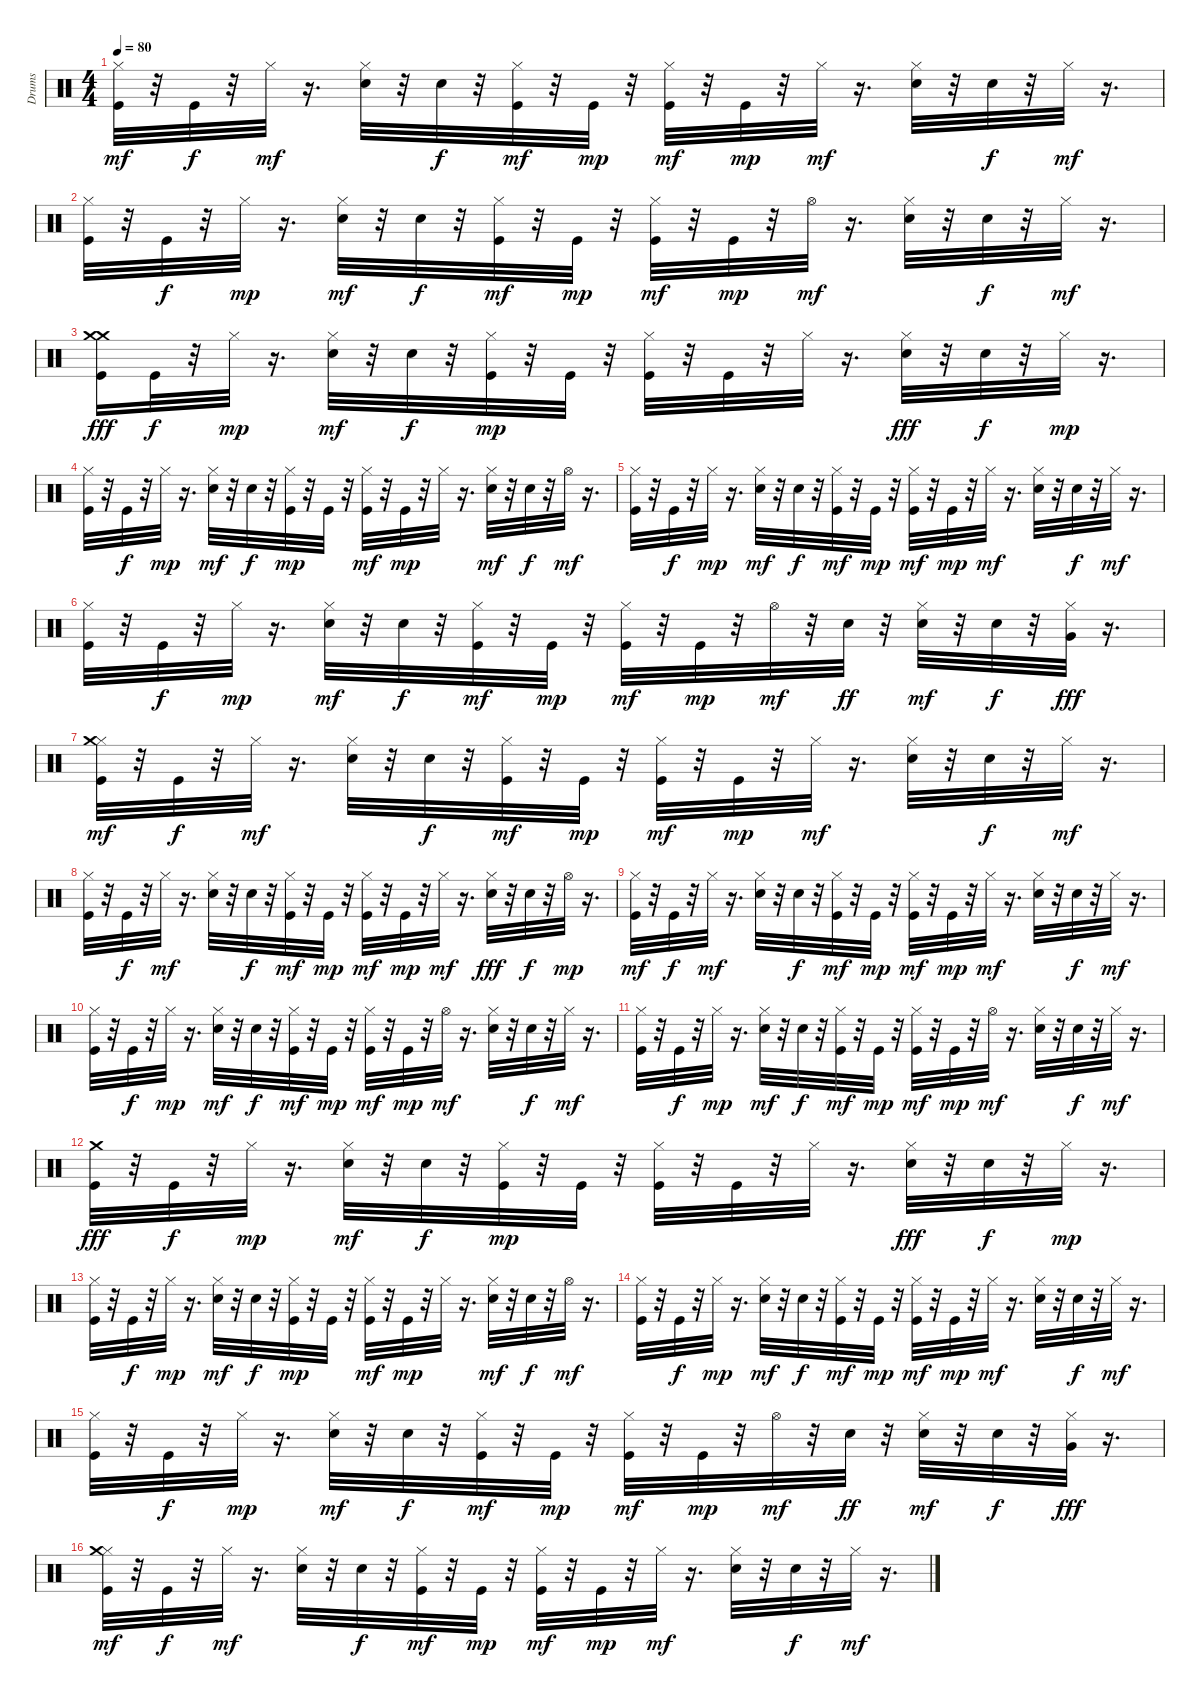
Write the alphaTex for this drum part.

\track ("Drums" "Drums") {instrument percussion}
\staff {score}
\articulation defaults
\ts (4 4)
\tempo 80
\clef neutral
\ks c
("Kick (hit)" "Hi-Hat (closed)").32{dy mf} r.32 "Kick (hit)".32{dy f} r.32 "Hi-Hat (closed)".32{dy mf} r.16{d} ("Snare (hit) 2" "Hi-Hat (closed)").32 r.32 "Snare (hit) 2".32{dy f} r.32 ("Kick (hit)" "Hi-Hat (closed)").32{dy mf} r.32 "Kick (hit)".32{dy mp} r.32 ("Kick (hit)" "Hi-Hat (closed)").32{dy mf} r.32 "Kick (hit)".32{dy mp} r.32 "Hi-Hat (closed)".32{dy mf} r.16{d} ("Snare (hit) 2" "Hi-Hat (closed)").32 r.32 "Snare (hit) 2".32{dy f} r.32 "Hi-Hat (closed)".32{dy mf} r.16{d} |
("Kick (hit)" "Hi-Hat (closed)").32 r.32 "Kick (hit)".32{dy f} r.32 "Hi-Hat (closed)".32{dy mp} r.16{d} ("Snare (hit) 2" "Hi-Hat (closed)").32{dy mf} r.32 "Snare (hit) 2".32{dy f} r.32 ("Kick (hit)" "Hi-Hat (closed)").32{dy mf} r.32 "Kick (hit)".32{dy mp} r.32 ("Kick (hit)" "Hi-Hat (closed)").32{dy mf} r.32 "Kick (hit)".32{dy mp} r.32 "Hi-Hat (open)".32{dy mf} r.16{d} ("Snare (hit) 2" "Hi-Hat (closed)").32 r.32 "Snare (hit) 2".32{dy f} r.32 "Hi-Hat (closed)".32{dy mf} r.16{d} |
("Kick (hit)" "Crash medium (hit)" "Crash medium (hit)").16{dy fff} "Kick (hit)".32{dy f} r.32 "Hi-Hat (closed)".32{dy mp} r.16{d} ("Snare (hit) 2" "Hi-Hat (closed)").32{dy mf} r.32 "Snare (hit) 2".32{dy f} r.32 ("Kick (hit)" "Hi-Hat (closed)").32{dy mp} r.32 "Kick (hit)".32 r.32 ("Kick (hit)" "Hi-Hat (closed)").32 r.32 "Kick (hit)".32 r.32 "Hi-Hat (closed)".32 r.16{d} ("Snare (hit) 2" "Hi-Hat (closed)").32{dy fff} r.32 "Snare (hit) 2".32{dy f} r.32 "Hi-Hat (closed)".32{dy mp} r.16{d} |
("Kick (hit)" "Hi-Hat (closed)").32 r.32 "Kick (hit)".32{dy f} r.32 "Hi-Hat (closed)".32{dy mp} r.16{d} ("Snare (hit) 2" "Hi-Hat (closed)").32{dy mf} r.32 "Snare (hit) 2".32{dy f} r.32 ("Kick (hit)" "Hi-Hat (closed)").32{dy mp} r.32 "Kick (hit)".32 r.32 ("Kick (hit)" "Hi-Hat (closed)").32{dy mf} r.32 "Kick (hit)".32{dy mp} r.32 "Hi-Hat (closed)".32 r.16{d} ("Snare (hit) 2" "Hi-Hat (closed)").32{dy mf} r.32 "Snare (hit) 2".32{dy f} r.32 "Hi-Hat (open)".32{dy mf} r.16{d} |
("Kick (hit)" "Hi-Hat (closed)").32 r.32 "Kick (hit)".32{dy f} r.32 "Hi-Hat (closed)".32{dy mp} r.16{d} ("Snare (hit) 2" "Hi-Hat (closed)").32{dy mf} r.32 "Snare (hit) 2".32{dy f} r.32 ("Kick (hit)" "Hi-Hat (closed)").32{dy mf} r.32 "Kick (hit)".32{dy mp} r.32 ("Kick (hit)" "Hi-Hat (closed)").32{dy mf} r.32 "Kick (hit)".32{dy mp} r.32 "Hi-Hat (closed)".32{dy mf} r.16{d} ("Snare (hit) 2" "Hi-Hat (closed)").32 r.32 "Snare (hit) 2".32{dy f} r.32 "Hi-Hat (closed)".32{dy mf} r.16{d} |
("Kick (hit)" "Hi-Hat (closed)").32 r.32 "Kick (hit)".32{dy f} r.32 "Hi-Hat (closed)".32{dy mp} r.16{d} ("Snare (hit) 2" "Hi-Hat (closed)").32{dy mf} r.32 "Snare (hit) 2".32{dy f} r.32 ("Kick (hit)" "Hi-Hat (closed)").32{dy mf} r.32 "Kick (hit)".32{dy mp} r.32 ("Kick (hit)" "Hi-Hat (closed)").32{dy mf} r.32 "Kick (hit)".32{dy mp} r.32 "Hi-Hat (open)".32{dy mf} r.32 "Snare (hit) 2".32{dy ff} r.32 ("Snare (hit) 2" "Hi-Hat (closed)").32{dy mf} r.32 "Snare (hit) 2".32{dy f} r.32 ("Hi-Hat (closed)" "Very Low Tom (hit)").32{dy fff} r.16{d} |
("Kick (hit)" "Hi-Hat (closed)" "Crash medium (hit)").32{dy mf} r.32 "Kick (hit)".32{dy f} r.32 "Hi-Hat (closed)".32{dy mf} r.16{d} ("Snare (hit) 2" "Hi-Hat (closed)").32 r.32 "Snare (hit) 2".32{dy f} r.32 ("Kick (hit)" "Hi-Hat (closed)").32{dy mf} r.32 "Kick (hit)".32{dy mp} r.32 ("Kick (hit)" "Hi-Hat (closed)").32{dy mf} r.32 "Kick (hit)".32{dy mp} r.32 "Hi-Hat (closed)".32{dy mf} r.16{d} ("Snare (hit) 2" "Hi-Hat (closed)").32 r.32 "Snare (hit) 2".32{dy f} r.32 "Hi-Hat (closed)".32{dy mf} r.16{d} |
("Kick (hit)" "Hi-Hat (closed)").32 r.32 "Kick (hit)".32{dy f} r.32 "Hi-Hat (closed)".32{dy mf} r.16{d} ("Snare (hit) 2" "Hi-Hat (closed)").32 r.32 "Snare (hit) 2".32{dy f} r.32 ("Kick (hit)" "Hi-Hat (closed)").32{dy mf} r.32 "Kick (hit)".32{dy mp} r.32 ("Kick (hit)" "Hi-Hat (closed)").32{dy mf} r.32 "Kick (hit)".32{dy mp} r.32 "Hi-Hat (closed)".32{dy mf} r.16{d} ("Snare (hit) 2" "Hi-Hat (closed)").32{dy fff} r.32 "Snare (hit) 2".32{dy f} r.32 "Hi-Hat (open)".32{dy mp} r.16{d} |
("Kick (hit)" "Hi-Hat (closed)").32{dy mf} r.32 "Kick (hit)".32{dy f} r.32 "Hi-Hat (closed)".32{dy mf} r.16{d} ("Snare (hit) 2" "Hi-Hat (closed)").32 r.32 "Snare (hit) 2".32{dy f} r.32 ("Kick (hit)" "Hi-Hat (closed)").32{dy mf} r.32 "Kick (hit)".32{dy mp} r.32 ("Kick (hit)" "Hi-Hat (closed)").32{dy mf} r.32 "Kick (hit)".32{dy mp} r.32 "Hi-Hat (closed)".32{dy mf} r.16{d} ("Snare (hit) 2" "Hi-Hat (closed)").32 r.32 "Snare (hit) 2".32{dy f} r.32 "Hi-Hat (closed)".32{dy mf} r.16{d} |
("Kick (hit)" "Hi-Hat (closed)").32 r.32 "Kick (hit)".32{dy f} r.32 "Hi-Hat (closed)".32{dy mp} r.16{d} ("Snare (hit) 2" "Hi-Hat (closed)").32{dy mf} r.32 "Snare (hit) 2".32{dy f} r.32 ("Kick (hit)" "Hi-Hat (closed)").32{dy mf} r.32 "Kick (hit)".32{dy mp} r.32 ("Kick (hit)" "Hi-Hat (closed)").32{dy mf} r.32 "Kick (hit)".32{dy mp} r.32 "Hi-Hat (open)".32{dy mf} r.16{d} ("Snare (hit) 2" "Hi-Hat (closed)").32 r.32 "Snare (hit) 2".32{dy f} r.32 "Hi-Hat (closed)".32{dy mf} r.16{d} |
("Kick (hit)" "Hi-Hat (closed)").32 r.32 "Kick (hit)".32{dy f} r.32 "Hi-Hat (closed)".32{dy mp} r.16{d} ("Snare (hit) 2" "Hi-Hat (closed)").32{dy mf} r.32 "Snare (hit) 2".32{dy f} r.32 ("Kick (hit)" "Hi-Hat (closed)").32{dy mf} r.32 "Kick (hit)".32{dy mp} r.32 ("Kick (hit)" "Hi-Hat (closed)").32{dy mf} r.32 "Kick (hit)".32{dy mp} r.32 "Hi-Hat (open)".32{dy mf} r.16{d} ("Snare (hit) 2" "Hi-Hat (closed)").32 r.32 "Snare (hit) 2".32{dy f} r.32 "Hi-Hat (closed)".32{dy mf} r.16{d} |
("Kick (hit)" "Crash medium (hit)").32{dy fff} r.32 "Kick (hit)".32{dy f} r.32 "Hi-Hat (closed)".32{dy mp} r.16{d} ("Snare (hit) 2" "Hi-Hat (closed)").32{dy mf} r.32 "Snare (hit) 2".32{dy f} r.32 ("Kick (hit)" "Hi-Hat (closed)").32{dy mp} r.32 "Kick (hit)".32 r.32 ("Kick (hit)" "Hi-Hat (closed)").32 r.32 "Kick (hit)".32 r.32 "Hi-Hat (closed)".32 r.16{d} ("Snare (hit) 2" "Hi-Hat (closed)").32{dy fff} r.32 "Snare (hit) 2".32{dy f} r.32 "Hi-Hat (closed)".32{dy mp} r.16{d} |
("Kick (hit)" "Hi-Hat (closed)").32 r.32 "Kick (hit)".32{dy f} r.32 "Hi-Hat (closed)".32{dy mp} r.16{d} ("Snare (hit) 2" "Hi-Hat (closed)").32{dy mf} r.32 "Snare (hit) 2".32{dy f} r.32 ("Kick (hit)" "Hi-Hat (closed)").32{dy mp} r.32 "Kick (hit)".32 r.32 ("Kick (hit)" "Hi-Hat (closed)").32{dy mf} r.32 "Kick (hit)".32{dy mp} r.32 "Hi-Hat (closed)".32 r.16{d} ("Snare (hit) 2" "Hi-Hat (closed)").32{dy mf} r.32 "Snare (hit) 2".32{dy f} r.32 "Hi-Hat (open)".32{dy mf} r.16{d} |
("Kick (hit)" "Hi-Hat (closed)").32 r.32 "Kick (hit)".32{dy f} r.32 "Hi-Hat (closed)".32{dy mp} r.16{d} ("Snare (hit) 2" "Hi-Hat (closed)").32{dy mf} r.32 "Snare (hit) 2".32{dy f} r.32 ("Kick (hit)" "Hi-Hat (closed)").32{dy mf} r.32 "Kick (hit)".32{dy mp} r.32 ("Kick (hit)" "Hi-Hat (closed)").32{dy mf} r.32 "Kick (hit)".32{dy mp} r.32 "Hi-Hat (closed)".32{dy mf} r.16{d} ("Snare (hit) 2" "Hi-Hat (closed)").32 r.32 "Snare (hit) 2".32{dy f} r.32 "Hi-Hat (closed)".32{dy mf} r.16{d} |
("Kick (hit)" "Hi-Hat (closed)").32 r.32 "Kick (hit)".32{dy f} r.32 "Hi-Hat (closed)".32{dy mp} r.16{d} ("Snare (hit) 2" "Hi-Hat (closed)").32{dy mf} r.32 "Snare (hit) 2".32{dy f} r.32 ("Kick (hit)" "Hi-Hat (closed)").32{dy mf} r.32 "Kick (hit)".32{dy mp} r.32 ("Kick (hit)" "Hi-Hat (closed)").32{dy mf} r.32 "Kick (hit)".32{dy mp} r.32 "Hi-Hat (open)".32{dy mf} r.32 "Snare (hit) 2".32{dy ff} r.32 ("Snare (hit) 2" "Hi-Hat (closed)").32{dy mf} r.32 "Snare (hit) 2".32{dy f} r.32 ("Hi-Hat (closed)" "Very Low Tom (hit)").32{dy fff} r.16{d} |
("Kick (hit)" "Hi-Hat (closed)" "Crash medium (hit)").32{dy mf} r.32 "Kick (hit)".32{dy f} r.32 "Hi-Hat (closed)".32{dy mf} r.16{d} ("Snare (hit) 2" "Hi-Hat (closed)").32 r.32 "Snare (hit) 2".32{dy f} r.32 ("Kick (hit)" "Hi-Hat (closed)").32{dy mf} r.32 "Kick (hit)".32{dy mp} r.32 ("Kick (hit)" "Hi-Hat (closed)").32{dy mf} r.32 "Kick (hit)".32{dy mp} r.32 "Hi-Hat (closed)".32{dy mf} r.16{d} ("Snare (hit) 2" "Hi-Hat (closed)").32 r.32 "Snare (hit) 2".32{dy f} r.32 "Hi-Hat (closed)".32{dy mf} r.16{d}
